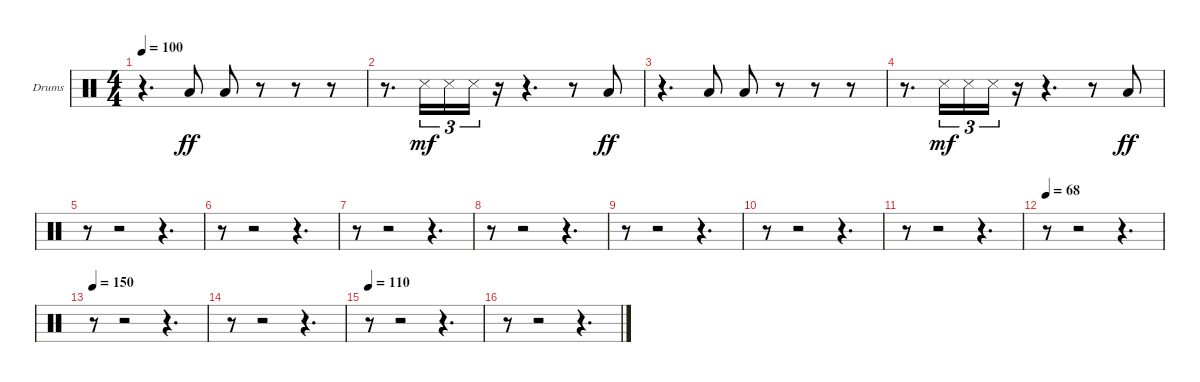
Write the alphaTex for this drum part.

\bracketExtendMode groupsimilarinstruments
\firstSystemTrackNameOrientation horizontal
\otherSystemsTrackNameOrientation horizontal
\track ("Drumkit" "Drums") {instrument percussion}
\staff {score}
\articulation defaults
\ts (4 4)
\tempo 100
\clef neutral
\ks c
r.4{d dy ff} "Low Tom (hit)".8 "Low Tom (hit)".8 r.8 r.8 r.8 |
r.8{d} "Snare (side stick) 3".16{tu (3 2) dy mf} "Snare (side stick) 3".16{tu (3 2)} "Snare (side stick) 3".16{tu (3 2)} r.16 r.4{d} r.8 "Low Tom (hit)".8{dy ff} |
r.4{d} "Low Tom (hit)".8 "Low Tom (hit)".8 r.8 r.8 r.8 |
r.8{d} "Snare (side stick) 3".16{tu (3 2) dy mf} "Snare (side stick) 3".16{tu (3 2)} "Snare (side stick) 3".16{tu (3 2)} r.16 r.4{d} r.8 "Low Tom (hit)".8{dy ff} |
r.8 r.2 r.4{d} |
r.8 r.2 r.4{d} |
r.8 r.2 r.4{d} |
r.8 r.2 r.4{d} |
r.8 r.2 r.4{d} |
r.8 r.2 r.4{d} |
r.8 r.2 r.4{d} |
\tempo 68
r.8 r.2 r.4{d} |
\tempo 150
r.8 r.2 r.4{d} |
r.8 r.2 r.4{d} |
\tempo 110
r.8 r.2 r.4{d} |
r.8 r.2 r.4{d}
